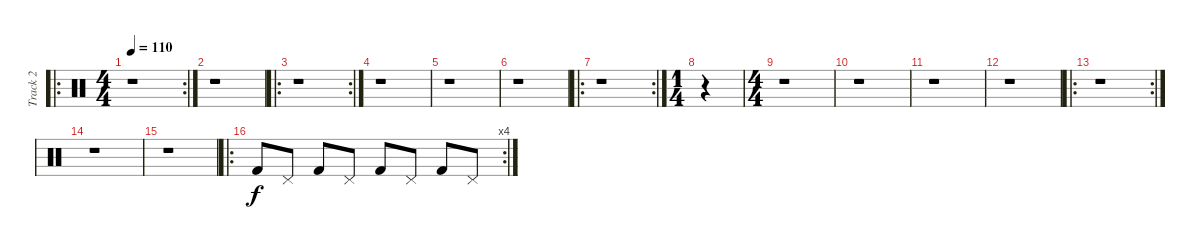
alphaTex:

\track ("Track 2" "Track 2") {instrument percussion}
\staff {score}
\articulation defaults
\ro
\rc 2
\ts (4 4)
\tempo 110
\clef neutral
\ks c
r.1{dy f} |
r.1 |
\ro
\rc 2
r.1 |
r.1 |
r.1 |
r.1 |
\ro
\rc 2
r.1 |
\ts (1 4)
r.4 |
\ts (4 4)
r.1 |
r.1 |
r.1 |
r.1 |
\ro
\rc 2
r.1 |
r.1 |
r.1 |
\ro
\rc 4 "Kick (hit) 2".8 "Pedal Hi-Hat (hit)".8 "Kick (hit) 2".8 "Pedal Hi-Hat (hit)".8 "Kick (hit) 2".8 "Pedal Hi-Hat (hit)".8 "Kick (hit) 2".8 "Pedal Hi-Hat (hit)".8
